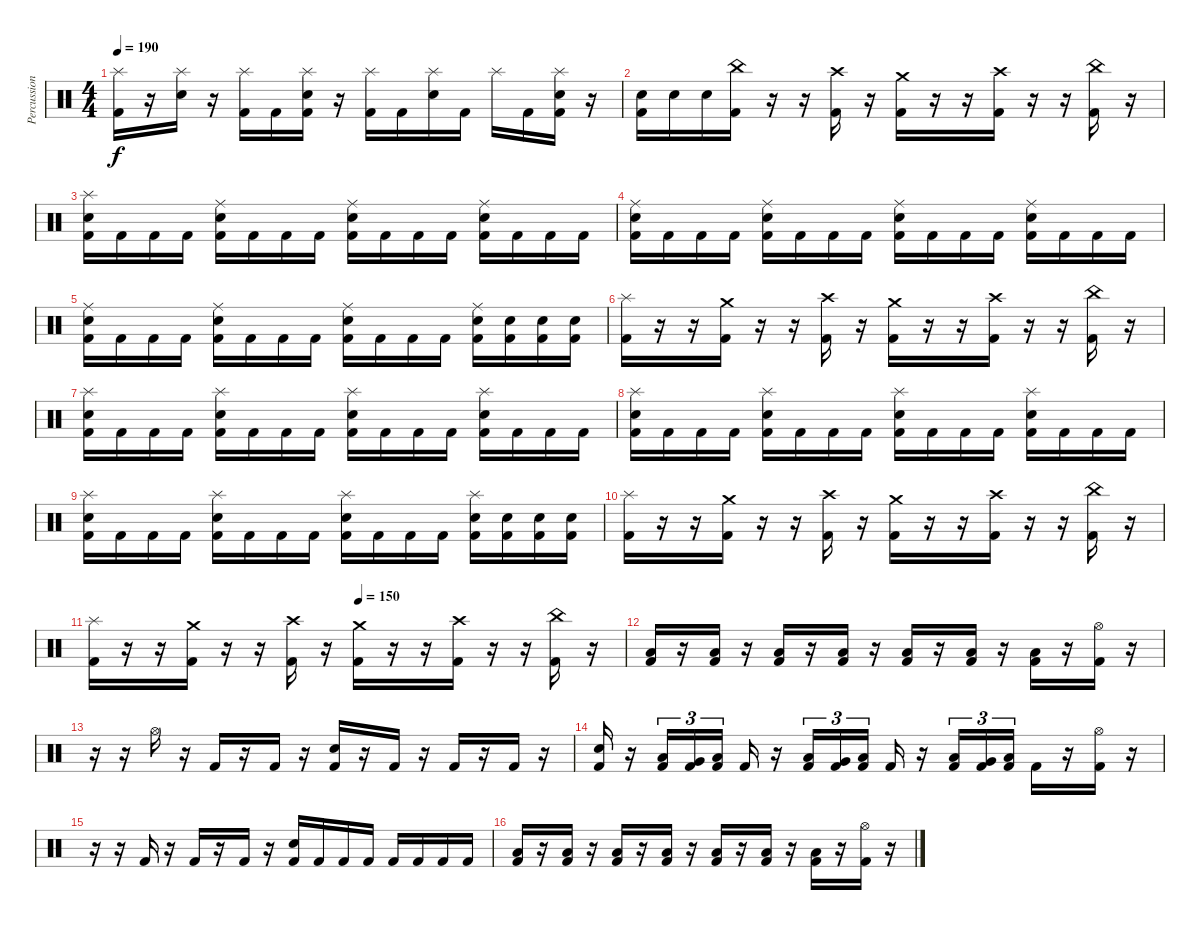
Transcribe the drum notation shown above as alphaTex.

\track ("Percussion" "Percussion") {instrument percussion}
\staff {score}
\articulation defaults
\ts (4 4)
\tempo 190
\clef neutral
\ks c
("Splash (hit)" "Kick (hit) 2").16{dy f} r.16 ("Splash (hit)" "Electric Snare (hit)").16 r.16 ("Splash (hit)" "Kick (hit) 2").16 "Kick (hit) 2".16 ("Splash (hit)" "Electric Snare (hit)" "Kick (hit) 2").16 r.16 ("Splash (hit)" "Kick (hit) 2").16 "Kick (hit) 2".16 ("Splash (hit)" "Electric Snare (hit)").16 "Kick (hit) 2".16 "Splash (hit)".16 "Kick (hit) 2".16 ("Splash (hit)" "Electric Snare (hit)" "Kick (hit) 2").16 r.16 |
("Electric Snare (hit)" "Kick (hit) 2").16 "Electric Snare (hit)".16 "Electric Snare (hit)".16 ("China (hit)" "Kick (hit) 2").16 r.16 r.16 ("Crash high (hit)" "Kick (hit) 2").16 r.16 ("Crash medium (hit)" "Kick (hit) 2").16 r.16 r.16 ("Crash high (hit)" "Kick (hit) 2").16 r.16 r.16 ("China (hit)" "Kick (hit) 2").16 r.16 |
("Splash (hit)" "Electric Snare (hit)" "Kick (hit) 2").16 "Kick (hit) 2".16 "Kick (hit) 2".16 "Kick (hit) 2".16 ("Ride (middle)" "Electric Snare (hit)" "Kick (hit) 2").16 "Kick (hit) 2".16 "Kick (hit) 2".16 "Kick (hit) 2".16 ("Ride (middle)" "Electric Snare (hit)" "Kick (hit) 2").16 "Kick (hit) 2".16 "Kick (hit) 2".16 "Kick (hit) 2".16 ("Ride (middle)" "Electric Snare (hit)" "Kick (hit) 2").16 "Kick (hit) 2".16 "Kick (hit) 2".16 "Kick (hit) 2".16 |
("Ride (middle)" "Electric Snare (hit)" "Kick (hit) 2").16 "Kick (hit) 2".16 "Kick (hit) 2".16 "Kick (hit) 2".16 ("Ride (middle)" "Electric Snare (hit)" "Kick (hit) 2").16 "Kick (hit) 2".16 "Kick (hit) 2".16 "Kick (hit) 2".16 ("Ride (middle)" "Electric Snare (hit)" "Kick (hit) 2").16 "Kick (hit) 2".16 "Kick (hit) 2".16 "Kick (hit) 2".16 ("Ride (middle)" "Electric Snare (hit)" "Kick (hit) 2").16 "Kick (hit) 2".16 "Kick (hit) 2".16 "Kick (hit) 2".16 |
("Ride (middle)" "Electric Snare (hit)" "Kick (hit) 2").16 "Kick (hit) 2".16 "Kick (hit) 2".16 "Kick (hit) 2".16 ("Ride (middle)" "Electric Snare (hit)" "Kick (hit) 2").16 "Kick (hit) 2".16 "Kick (hit) 2".16 "Kick (hit) 2".16 ("Ride (middle)" "Electric Snare (hit)" "Kick (hit) 2").16 "Kick (hit) 2".16 "Kick (hit) 2".16 "Kick (hit) 2".16 ("Ride (middle)" "Electric Snare (hit)" "Kick (hit) 2").16 ("Electric Snare (hit)" "Kick (hit) 2").16 ("Electric Snare (hit)" "Kick (hit) 2").16 ("Electric Snare (hit)" "Kick (hit) 2").16 |
("Splash (hit)" "Kick (hit) 2").16 r.16 r.16 ("Crash medium (hit)" "Kick (hit) 2").16 r.16 r.16 ("Crash high (hit)" "Kick (hit) 2").16 r.16 ("Crash medium (hit)" "Kick (hit) 2").16 r.16 r.16 ("Crash high (hit)" "Kick (hit) 2").16 r.16 r.16 ("China (hit)" "Kick (hit) 2").16 r.16 |
("Splash (hit)" "Electric Snare (hit)" "Kick (hit) 2").16 "Kick (hit) 2".16 "Kick (hit) 2".16 "Kick (hit) 2".16 ("Splash (hit)" "Electric Snare (hit)" "Kick (hit) 2").16 "Kick (hit) 2".16 "Kick (hit) 2".16 "Kick (hit) 2".16 ("Splash (hit)" "Electric Snare (hit)" "Kick (hit) 2").16 "Kick (hit) 2".16 "Kick (hit) 2".16 "Kick (hit) 2".16 ("Splash (hit)" "Electric Snare (hit)" "Kick (hit) 2").16 "Kick (hit) 2".16 "Kick (hit) 2".16 "Kick (hit) 2".16 |
("Splash (hit)" "Electric Snare (hit)" "Kick (hit) 2").16 "Kick (hit) 2".16 "Kick (hit) 2".16 "Kick (hit) 2".16 ("Splash (hit)" "Electric Snare (hit)" "Kick (hit) 2").16 "Kick (hit) 2".16 "Kick (hit) 2".16 "Kick (hit) 2".16 ("Splash (hit)" "Electric Snare (hit)" "Kick (hit) 2").16 "Kick (hit) 2".16 "Kick (hit) 2".16 "Kick (hit) 2".16 ("Splash (hit)" "Electric Snare (hit)" "Kick (hit) 2").16 "Kick (hit) 2".16 "Kick (hit) 2".16 "Kick (hit) 2".16 |
("Splash (hit)" "Electric Snare (hit)" "Kick (hit) 2").16 "Kick (hit) 2".16 "Kick (hit) 2".16 "Kick (hit) 2".16 ("Splash (hit)" "Electric Snare (hit)" "Kick (hit) 2").16 "Kick (hit) 2".16 "Kick (hit) 2".16 "Kick (hit) 2".16 ("Splash (hit)" "Electric Snare (hit)" "Kick (hit) 2").16 "Kick (hit) 2".16 "Kick (hit) 2".16 "Kick (hit) 2".16 ("Splash (hit)" "Electric Snare (hit)" "Kick (hit) 2").16 ("Electric Snare (hit)" "Kick (hit) 2").16 ("Electric Snare (hit)" "Kick (hit) 2").16 ("Electric Snare (hit)" "Kick (hit) 2").16 |
("Splash (hit)" "Kick (hit) 2").16 r.16 r.16 ("Crash medium (hit)" "Kick (hit) 2").16 r.16 r.16 ("Crash high (hit)" "Kick (hit) 2").16 r.16 ("Crash medium (hit)" "Kick (hit) 2").16 r.16 r.16 ("Crash high (hit)" "Kick (hit) 2").16 r.16 r.16 ("China (hit)" "Kick (hit) 2").16 r.16 |
\tempo (150 0.5)
("Splash (hit)" "Kick (hit) 2").16 r.16 r.16 ("Crash medium (hit)" "Kick (hit) 2").16 r.16 r.16 ("Crash high (hit)" "Kick (hit) 2").16 r.16 ("Crash medium (hit)" "Kick (hit) 2").16 r.16 r.16 ("Crash high (hit)" "Kick (hit) 2").16 r.16 r.16 ("China (hit)" "Kick (hit) 2").16 r.16 |
("Low Floor Tom (hit)" "Kick (hit) 2").16 r.16 ("Low Floor Tom (hit)" "Kick (hit) 2").16 r.16 ("Low Floor Tom (hit)" "Kick (hit) 2").16 r.16 ("Low Floor Tom (hit)" "Kick (hit) 2").16 r.16 ("Low Floor Tom (hit)" "Kick (hit) 2").16 r.16 ("Low Floor Tom (hit)" "Kick (hit) 2").16 r.16 ("Low Floor Tom (hit)" "Kick (hit) 2").16 r.16 ("Hi-Hat (open)" "Kick (hit) 2").16 r.16 |
r.16 r.16 "Hi-Hat (open)".16 r.16 "Kick (hit) 2".16 r.16 "Kick (hit) 2".16 r.16 ("Electric Snare (hit)" "Kick (hit) 2").16 r.16 "Kick (hit) 2".16 r.16 "Kick (hit) 2".16 r.16 "Kick (hit) 2".16 r.16 |
("Electric Snare (hit)" "Kick (hit) 2").16 r.16 ("Low Tom (hit)" "Kick (hit) 2").16{tu (3 2)} ("Very Low Tom (hit)" "Kick (hit) 2").16{tu (3 2)} ("Low Floor Tom (hit)" "Kick (hit) 2").16{tu (3 2)} "Kick (hit) 2".16 r.16 ("Low Tom (hit)" "Kick (hit) 2").16{tu (3 2)} ("Very Low Tom (hit)" "Kick (hit) 2").16{tu (3 2)} ("Low Floor Tom (hit)" "Kick (hit) 2").16{tu (3 2)} "Kick (hit) 2".16 r.16 ("Low Tom (hit)" "Kick (hit) 2").16{tu (3 2)} ("Very Low Tom (hit)" "Kick (hit) 2").16{tu (3 2)} ("Low Floor Tom (hit)" "Kick (hit) 2").16{tu (3 2)} "Kick (hit) 2".16 r.16 ("Hi-Hat (open)" "Kick (hit) 2").16 r.16 |
r.16 r.16 "Kick (hit) 2".16 r.16 "Kick (hit) 2".16 r.16 "Kick (hit) 2".16 r.16 ("Electric Snare (hit)" "Kick (hit) 2").16 "Kick (hit) 2".16 "Kick (hit) 2".16 "Kick (hit) 2".16 "Kick (hit) 2".16 "Kick (hit) 2".16 "Kick (hit) 2".16 "Kick (hit) 2".16 |
("Low Floor Tom (hit)" "Kick (hit) 2").16 r.16 ("Low Floor Tom (hit)" "Kick (hit) 2").16 r.16 ("Low Floor Tom (hit)" "Kick (hit) 2").16 r.16 ("Low Floor Tom (hit)" "Kick (hit) 2").16 r.16 ("Low Floor Tom (hit)" "Kick (hit) 2").16 r.16 ("Low Floor Tom (hit)" "Kick (hit) 2").16 r.16 ("Low Floor Tom (hit)" "Kick (hit) 2").16 r.16 ("Hi-Hat (open)" "Kick (hit) 2").16 r.16
